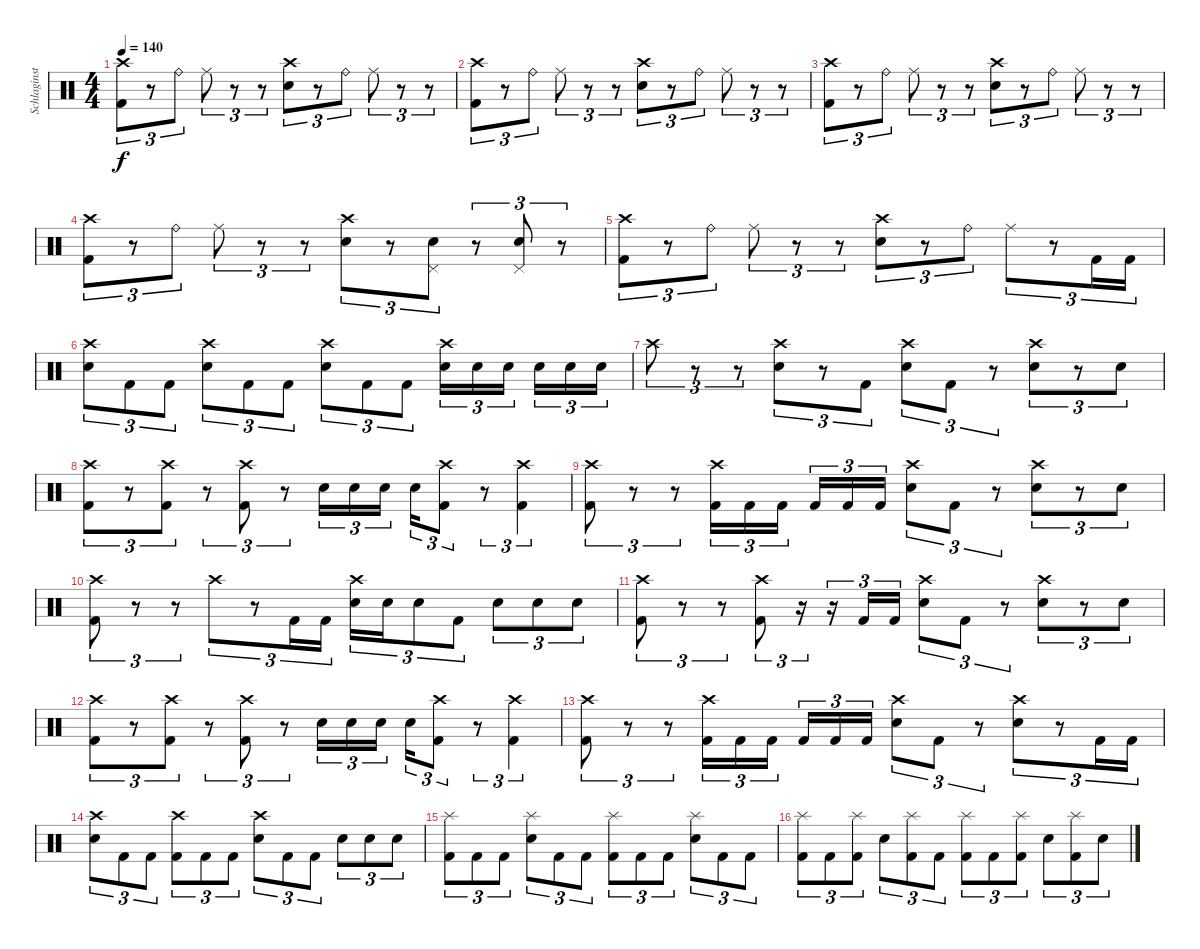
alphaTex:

\track ("Schlaginstrumente - Auswahl" "Schlaginst") {instrument percussion}
\staff {score}
\articulation defaults
\ts (4 4)
\tempo 140
\clef neutral
\ks c
("Crash high (hit)" "Kick (hit) 2").8{tu (3 2) dy f} r.8{tu (3 2)} "Ride (bell)".8{tu (3 2)} "Ride (middle)".8{tu (3 2)} r.8{tu (3 2)} r.8{tu (3 2)} ("Crash high (hit)" "Electric Snare (hit)").8{tu (3 2)} r.8{tu (3 2)} "Ride (bell)".8{tu (3 2)} "Ride (middle)".8{tu (3 2)} r.8{tu (3 2)} r.8{tu (3 2)} |
("Crash high (hit)" "Kick (hit) 2").8{tu (3 2)} r.8{tu (3 2)} "Ride (bell)".8{tu (3 2)} "Ride (middle)".8{tu (3 2)} r.8{tu (3 2)} r.8{tu (3 2)} ("Crash high (hit)" "Electric Snare (hit)").8{tu (3 2)} r.8{tu (3 2)} "Ride (bell)".8{tu (3 2)} "Ride (middle)".8{tu (3 2)} r.8{tu (3 2)} r.8{tu (3 2)} |
("Crash high (hit)" "Kick (hit) 2").8{tu (3 2)} r.8{tu (3 2)} "Ride (bell)".8{tu (3 2)} "Ride (middle)".8{tu (3 2)} r.8{tu (3 2)} r.8{tu (3 2)} ("Crash high (hit)" "Electric Snare (hit)").8{tu (3 2)} r.8{tu (3 2)} "Ride (bell)".8{tu (3 2)} "Ride (middle)".8{tu (3 2)} r.8{tu (3 2)} r.8{tu (3 2)} |
("Crash high (hit)" "Kick (hit) 2").8{tu (3 2)} r.8{tu (3 2)} "Ride (bell)".8{tu (3 2)} "Ride (middle)".8{tu (3 2)} r.8{tu (3 2)} r.8{tu (3 2)} ("Crash high (hit)" "Electric Snare (hit)").8{tu (3 2)} r.8{tu (3 2)} ("Pedal Hi-Hat (hit)" "Electric Snare (hit)").8{tu (3 2)} r.8{tu (3 2)} ("Pedal Hi-Hat (hit)" "Electric Snare (hit)").8{tu (3 2)} r.8{tu (3 2)} |
("Crash high (hit)" "Kick (hit) 2").8{tu (3 2)} r.8{tu (3 2)} "Ride (bell)".8{tu (3 2)} "Ride (middle)".8{tu (3 2)} r.8{tu (3 2)} r.8{tu (3 2)} ("Crash high (hit)" "Electric Snare (hit)").8{tu (3 2)} r.8{tu (3 2)} "Ride (bell)".8{tu (3 2)} "Ride (middle)".8{tu (3 2)} r.8{tu (3 2)} "Kick (hit) 2".16{tu (3 2)} "Kick (hit) 2".16{tu (3 2)} |
("Electric Snare (hit)" "Crash high (hit)").8{tu (3 2)} "Kick (hit) 2".8{tu (3 2)} "Kick (hit) 2".8{tu (3 2)} ("Electric Snare (hit)" "Crash high (hit)").8{tu (3 2)} "Kick (hit) 2".8{tu (3 2)} "Kick (hit) 2".8{tu (3 2)} ("Electric Snare (hit)" "Crash high (hit)").8{tu (3 2)} "Kick (hit) 2".8{tu (3 2)} "Kick (hit) 2".8{tu (3 2)} ("Electric Snare (hit)" "Crash high (hit)").16{tu (3 2)} "Electric Snare (hit)".16{tu (3 2)} "Electric Snare (hit)".16{tu (3 2) beam splitsecondary} "Electric Snare (hit)".16{tu (3 2)} "Electric Snare (hit)".16{tu (3 2)} "Electric Snare (hit)".16{tu (3 2)} |
"Crash high (hit)".8{tu (3 2)} r.8{tu (3 2)} r.8{tu (3 2)} ("Crash high (hit)" "Electric Snare (hit)").8{tu (3 2)} r.8{tu (3 2)} "Kick (hit) 2".8{tu (3 2)} ("Crash high (hit)" "Electric Snare (hit)").8{tu (3 2)} "Kick (hit) 2".8{tu (3 2)} r.8{tu (3 2)} ("Electric Snare (hit)" "Crash high (hit)").8{tu (3 2)} r.8{tu (3 2)} "Electric Snare (hit)".8{tu (3 2)} |
("Crash high (hit)" "Kick (hit) 2").8{tu (3 2)} r.8{tu (3 2)} ("Crash high (hit)" "Kick (hit) 2").8{tu (3 2)} r.8{tu (3 2)} ("Crash high (hit)" "Kick (hit) 2").8{tu (3 2)} r.8{tu (3 2)} "Electric Snare (hit)".16{tu (3 2)} "Electric Snare (hit)".16{tu (3 2)} "Electric Snare (hit)".16{tu (3 2) beam splitsecondary} "Electric Snare (hit)".16{tu (3 2)} ("Crash high (hit)" "Kick (hit) 2").8{tu (3 2)} r.8{tu (3 2)} ("Crash high (hit)" "Kick (hit) 2").4{tu (3 2)} |
("Crash high (hit)" "Kick (hit) 2").8{tu (3 2)} r.8{tu (3 2)} r.8{tu (3 2)} ("Crash high (hit)" "Kick (hit) 2").16{tu (3 2)} "Kick (hit) 2".16{tu (3 2)} "Kick (hit) 2".16{tu (3 2) beam splitsecondary} "Kick (hit) 2".16{tu (3 2)} "Kick (hit) 2".16{tu (3 2)} "Kick (hit) 2".16{tu (3 2)} ("Crash high (hit)" "Electric Snare (hit)").8{tu (3 2)} "Kick (hit) 2".8{tu (3 2)} r.8{tu (3 2)} ("Crash high (hit)" "Electric Snare (hit)").8{tu (3 2)} r.8{tu (3 2)} "Electric Snare (hit)".8{tu (3 2)} |
("Crash high (hit)" "Kick (hit) 2").8{tu (3 2)} r.8{tu (3 2)} r.8{tu (3 2)} "Crash high (hit)".8{tu (3 2)} r.8{tu (3 2)} "Kick (hit) 2".16{tu (3 2)} "Kick (hit) 2".16{tu (3 2)} ("Crash high (hit)" "Electric Snare (hit)").16{tu (3 2)} "Electric Snare (hit)".16{tu (3 2)} "Electric Snare (hit)".8{tu (3 2)} "Kick (hit) 2".8{tu (3 2)} "Electric Snare (hit)".8{tu (3 2)} "Electric Snare (hit)".8{tu (3 2)} "Electric Snare (hit)".8{tu (3 2)} |
("Crash high (hit)" "Kick (hit) 2").8{tu (3 2)} r.8{tu (3 2)} r.8{tu (3 2)} ("Crash high (hit)" "Kick (hit) 2").8{tu (3 2)} r.16{tu (3 2)} r.16{tu (3 2)} "Kick (hit) 2".16{tu (3 2)} "Kick (hit) 2".16{tu (3 2)} ("Crash high (hit)" "Electric Snare (hit)").8{tu (3 2)} "Kick (hit) 2".8{tu (3 2)} r.8{tu (3 2)} ("Crash high (hit)" "Electric Snare (hit)").8{tu (3 2)} r.8{tu (3 2)} "Electric Snare (hit)".8{tu (3 2)} |
("Crash high (hit)" "Kick (hit) 2").8{tu (3 2)} r.8{tu (3 2)} ("Crash high (hit)" "Kick (hit) 2").8{tu (3 2)} r.8{tu (3 2)} ("Crash high (hit)" "Kick (hit) 2").8{tu (3 2)} r.8{tu (3 2)} "Electric Snare (hit)".16{tu (3 2)} "Electric Snare (hit)".16{tu (3 2)} "Electric Snare (hit)".16{tu (3 2) beam splitsecondary} "Electric Snare (hit)".16{tu (3 2)} ("Crash high (hit)" "Kick (hit) 2").8{tu (3 2)} r.8{tu (3 2)} ("Crash high (hit)" "Kick (hit) 2").4{tu (3 2)} |
("Crash high (hit)" "Kick (hit) 2").8{tu (3 2)} r.8{tu (3 2)} r.8{tu (3 2)} ("Crash high (hit)" "Kick (hit) 2").16{tu (3 2)} "Kick (hit) 2".16{tu (3 2)} "Kick (hit) 2".16{tu (3 2) beam splitsecondary} "Kick (hit) 2".16{tu (3 2)} "Kick (hit) 2".16{tu (3 2)} "Kick (hit) 2".16{tu (3 2)} ("Crash high (hit)" "Electric Snare (hit)").8{tu (3 2)} "Kick (hit) 2".8{tu (3 2)} r.8{tu (3 2)} ("Crash high (hit)" "Electric Snare (hit)").8{tu (3 2)} r.8{tu (3 2)} "Kick (hit) 2".16{tu (3 2)} "Kick (hit) 2".16{tu (3 2)} |
("Electric Snare (hit)" "Crash high (hit)").8{tu (3 2)} "Kick (hit) 2".8{tu (3 2)} "Kick (hit) 2".8{tu (3 2)} ("Crash high (hit)" "Kick (hit) 2").8{tu (3 2)} "Kick (hit) 2".8{tu (3 2)} "Kick (hit) 2".8{tu (3 2)} ("Crash high (hit)" "Electric Snare (hit)").8{tu (3 2)} "Kick (hit) 2".8{tu (3 2)} "Kick (hit) 2".8{tu (3 2)} "Electric Snare (hit)".8{tu (3 2)} "Electric Snare (hit)".8{tu (3 2)} "Electric Snare (hit)".8{tu (3 2)} |
("Splash (hit)" "Kick (hit) 2").8{tu (3 2)} "Kick (hit) 2".8{tu (3 2)} "Kick (hit) 2".8{tu (3 2)} ("Splash (hit)" "Electric Snare (hit)").8{tu (3 2)} "Kick (hit) 2".8{tu (3 2)} "Kick (hit) 2".8{tu (3 2)} ("Splash (hit)" "Kick (hit) 2").8{tu (3 2)} "Kick (hit) 2".8{tu (3 2)} "Kick (hit) 2".8{tu (3 2)} ("Splash (hit)" "Electric Snare (hit)").8{tu (3 2)} "Kick (hit) 2".8{tu (3 2)} "Kick (hit) 2".8{tu (3 2)} |
("Splash (hit)" "Kick (hit) 2").8{tu (3 2)} "Kick (hit) 2".8{tu (3 2)} ("Splash (hit)" "Kick (hit) 2").8{tu (3 2)} "Electric Snare (hit)".8{tu (3 2)} ("Splash (hit)" "Kick (hit) 2").8{tu (3 2)} "Kick (hit) 2".8{tu (3 2)} ("Splash (hit)" "Kick (hit) 2").8{tu (3 2)} "Kick (hit) 2".8{tu (3 2)} ("Splash (hit)" "Kick (hit) 2").8{tu (3 2)} "Electric Snare (hit)".8{tu (3 2)} ("Splash (hit)" "Kick (hit) 2").8{tu (3 2)} "Electric Snare (hit)".8{tu (3 2)}
